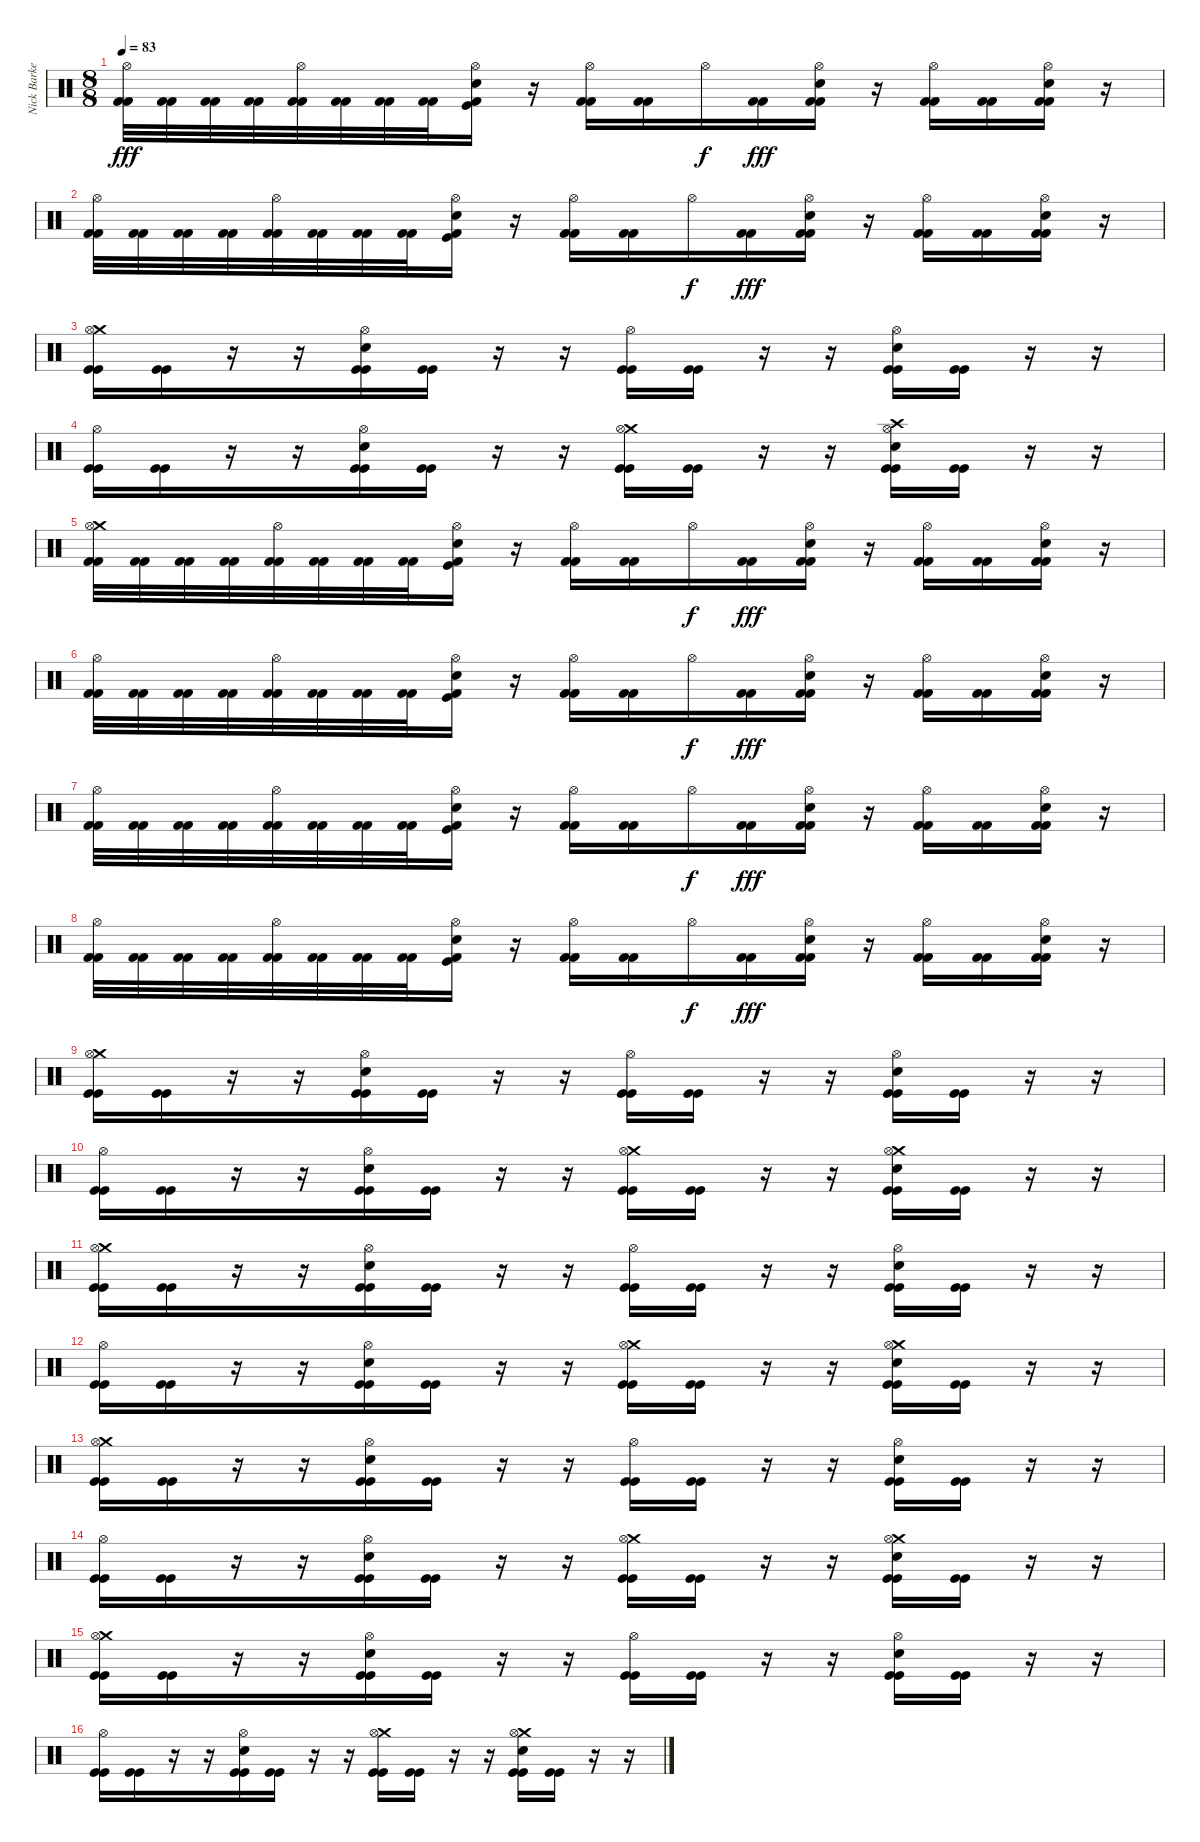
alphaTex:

\track ("Nick Barker" "Nick Barke") {instrument percussion}
\staff {score}
\articulation defaults
\ts (8 8)
\tempo 83
\clef neutral
\ks c
("Kick (hit) 2" "Hi-Hat (open)" "Kick (hit) 2").32{dy fff} ("Kick (hit) 2" "Kick (hit) 2").32 ("Kick (hit) 2" "Kick (hit) 2").32 ("Kick (hit) 2" "Kick (hit) 2").32 ("Kick (hit) 2" "Hi-Hat (open)" "Kick (hit) 2").32 ("Kick (hit) 2" "Kick (hit) 2").32 ("Kick (hit) 2" "Kick (hit) 2").32 ("Kick (hit) 2" "Kick (hit) 2").32 ("Kick (hit) 2" "Hi-Hat (open)" "Snare (hit) 2" "Kick (hit)").16 r.16 ("Kick (hit) 2" "Hi-Hat (open)" "Kick (hit) 2").16 ("Kick (hit) 2" "Kick (hit) 2").16 "Hi-Hat (open)".16{dy f} ("Kick (hit) 2" "Kick (hit) 2").16{dy fff} ("Kick (hit) 2" "Snare (hit) 2" "Hi-Hat (open)" "Kick (hit) 2").16 r.16 ("Kick (hit) 2" "Hi-Hat (open)" "Kick (hit) 2").16 ("Kick (hit) 2" "Kick (hit) 2").16 ("Kick (hit) 2" "Snare (hit) 2" "Hi-Hat (open)" "Kick (hit) 2").16 r.16 |
("Kick (hit) 2" "Hi-Hat (open)" "Kick (hit) 2").32 ("Kick (hit) 2" "Kick (hit) 2").32 ("Kick (hit) 2" "Kick (hit) 2").32 ("Kick (hit) 2" "Kick (hit) 2").32 ("Kick (hit) 2" "Hi-Hat (open)" "Kick (hit) 2").32 ("Kick (hit) 2" "Kick (hit) 2").32 ("Kick (hit) 2" "Kick (hit) 2").32 ("Kick (hit) 2" "Kick (hit) 2").32 ("Kick (hit) 2" "Hi-Hat (open)" "Snare (hit) 2" "Kick (hit)").16 r.16 ("Kick (hit) 2" "Hi-Hat (open)" "Kick (hit) 2").16 ("Kick (hit) 2" "Kick (hit) 2").16 "Hi-Hat (open)".16{dy f} ("Kick (hit) 2" "Kick (hit) 2").16{dy fff} ("Kick (hit) 2" "Snare (hit) 2" "Hi-Hat (open)" "Kick (hit) 2").16 r.16 ("Kick (hit) 2" "Hi-Hat (open)" "Kick (hit) 2").16 ("Kick (hit) 2" "Kick (hit) 2").16 ("Kick (hit) 2" "Snare (hit) 2" "Hi-Hat (open)" "Kick (hit) 2").16 r.16 |
("Kick (hit)" "Crash medium (hit)" "Hi-Hat (open)" "Kick (hit)").16 ("Kick (hit)" "Kick (hit)").16 r.16 r.16 ("Kick (hit)" "Snare (hit) 2" "Hi-Hat (open)" "Kick (hit)").16 ("Kick (hit)" "Kick (hit)").16 r.16 r.16 ("Kick (hit)" "Hi-Hat (open)" "Kick (hit)").16 ("Kick (hit)" "Kick (hit)").16 r.16 r.16 ("Kick (hit)" "Snare (hit) 2" "Hi-Hat (open)" "Kick (hit)").16 ("Kick (hit)" "Kick (hit)").16 r.16 r.16 |
("Kick (hit)" "Hi-Hat (open)" "Kick (hit)").16 ("Kick (hit)" "Kick (hit)").16 r.16 r.16 ("Kick (hit)" "Snare (hit) 2" "Hi-Hat (open)" "Kick (hit)").16 ("Kick (hit)" "Kick (hit)").16 r.16 r.16 ("Kick (hit)" "Crash medium (hit)" "Hi-Hat (open)" "Kick (hit)").16 ("Kick (hit)" "Kick (hit)").16 r.16 r.16 ("Kick (hit)" "Crash high (hit)" "Snare (hit) 2" "Hi-Hat (open)" "Kick (hit)").16 ("Kick (hit)" "Kick (hit)").16 r.16 r.16 |
("Kick (hit) 2" "Crash medium (hit)" "Hi-Hat (open)" "Kick (hit) 2").32 ("Kick (hit) 2" "Kick (hit) 2").32 ("Kick (hit) 2" "Kick (hit) 2").32 ("Kick (hit) 2" "Kick (hit) 2").32 ("Kick (hit) 2" "Hi-Hat (open)" "Kick (hit) 2").32 ("Kick (hit) 2" "Kick (hit) 2").32 ("Kick (hit) 2" "Kick (hit) 2").32 ("Kick (hit) 2" "Kick (hit) 2").32 ("Kick (hit) 2" "Hi-Hat (open)" "Snare (hit) 2" "Kick (hit)").16 r.16 ("Kick (hit) 2" "Hi-Hat (open)" "Kick (hit) 2").16 ("Kick (hit) 2" "Kick (hit) 2").16 "Hi-Hat (open)".16{dy f} ("Kick (hit) 2" "Kick (hit) 2").16{dy fff} ("Kick (hit) 2" "Snare (hit) 2" "Hi-Hat (open)" "Kick (hit) 2").16 r.16 ("Kick (hit) 2" "Hi-Hat (open)" "Kick (hit) 2").16 ("Kick (hit) 2" "Kick (hit) 2").16 ("Kick (hit) 2" "Snare (hit) 2" "Hi-Hat (open)" "Kick (hit) 2").16 r.16 |
("Kick (hit) 2" "Hi-Hat (open)" "Kick (hit) 2").32 ("Kick (hit) 2" "Kick (hit) 2").32 ("Kick (hit) 2" "Kick (hit) 2").32 ("Kick (hit) 2" "Kick (hit) 2").32 ("Kick (hit) 2" "Hi-Hat (open)" "Kick (hit) 2").32 ("Kick (hit) 2" "Kick (hit) 2").32 ("Kick (hit) 2" "Kick (hit) 2").32 ("Kick (hit) 2" "Kick (hit) 2").32 ("Kick (hit) 2" "Hi-Hat (open)" "Snare (hit) 2" "Kick (hit)").16 r.16 ("Kick (hit) 2" "Hi-Hat (open)" "Kick (hit) 2").16 ("Kick (hit) 2" "Kick (hit) 2").16 "Hi-Hat (open)".16{dy f} ("Kick (hit) 2" "Kick (hit) 2").16{dy fff} ("Kick (hit) 2" "Snare (hit) 2" "Hi-Hat (open)" "Kick (hit) 2").16 r.16 ("Kick (hit) 2" "Hi-Hat (open)" "Kick (hit) 2").16 ("Kick (hit) 2" "Kick (hit) 2").16 ("Kick (hit) 2" "Snare (hit) 2" "Hi-Hat (open)" "Kick (hit) 2").16 r.16 |
("Kick (hit) 2" "Hi-Hat (open)" "Kick (hit) 2").32 ("Kick (hit) 2" "Kick (hit) 2").32 ("Kick (hit) 2" "Kick (hit) 2").32 ("Kick (hit) 2" "Kick (hit) 2").32 ("Kick (hit) 2" "Hi-Hat (open)" "Kick (hit) 2").32 ("Kick (hit) 2" "Kick (hit) 2").32 ("Kick (hit) 2" "Kick (hit) 2").32 ("Kick (hit) 2" "Kick (hit) 2").32 ("Kick (hit) 2" "Hi-Hat (open)" "Snare (hit) 2" "Kick (hit)").16 r.16 ("Kick (hit) 2" "Hi-Hat (open)" "Kick (hit) 2").16 ("Kick (hit) 2" "Kick (hit) 2").16 "Hi-Hat (open)".16{dy f} ("Kick (hit) 2" "Kick (hit) 2").16{dy fff} ("Kick (hit) 2" "Snare (hit) 2" "Hi-Hat (open)" "Kick (hit) 2").16 r.16 ("Kick (hit) 2" "Hi-Hat (open)" "Kick (hit) 2").16 ("Kick (hit) 2" "Kick (hit) 2").16 ("Kick (hit) 2" "Snare (hit) 2" "Hi-Hat (open)" "Kick (hit) 2").16 r.16 |
("Kick (hit) 2" "Hi-Hat (open)" "Kick (hit) 2").32 ("Kick (hit) 2" "Kick (hit) 2").32 ("Kick (hit) 2" "Kick (hit) 2").32 ("Kick (hit) 2" "Kick (hit) 2").32 ("Kick (hit) 2" "Hi-Hat (open)" "Kick (hit) 2").32 ("Kick (hit) 2" "Kick (hit) 2").32 ("Kick (hit) 2" "Kick (hit) 2").32 ("Kick (hit) 2" "Kick (hit) 2").32 ("Kick (hit) 2" "Hi-Hat (open)" "Snare (hit) 2" "Kick (hit)").16 r.16 ("Kick (hit) 2" "Hi-Hat (open)" "Kick (hit) 2").16 ("Kick (hit) 2" "Kick (hit) 2").16 "Hi-Hat (open)".16{dy f} ("Kick (hit) 2" "Kick (hit) 2").16{dy fff} ("Kick (hit) 2" "Snare (hit) 2" "Hi-Hat (open)" "Kick (hit) 2").16 r.16 ("Kick (hit) 2" "Hi-Hat (open)" "Kick (hit) 2").16 ("Kick (hit) 2" "Kick (hit) 2").16 ("Kick (hit) 2" "Snare (hit) 2" "Hi-Hat (open)" "Kick (hit) 2").16 r.16 |
("Kick (hit)" "Crash medium (hit)" "Hi-Hat (open)" "Kick (hit)").16 ("Kick (hit)" "Kick (hit)").16 r.16 r.16 ("Kick (hit)" "Snare (hit) 2" "Hi-Hat (open)" "Kick (hit)").16 ("Kick (hit)" "Kick (hit)").16 r.16 r.16 ("Kick (hit)" "Hi-Hat (open)" "Kick (hit)").16 ("Kick (hit)" "Kick (hit)").16 r.16 r.16 ("Kick (hit)" "Snare (hit) 2" "Hi-Hat (open)" "Kick (hit)").16 ("Kick (hit)" "Kick (hit)").16 r.16 r.16 |
("Kick (hit)" "Hi-Hat (open)" "Kick (hit)").16 ("Kick (hit)" "Kick (hit)").16 r.16 r.16 ("Kick (hit)" "Snare (hit) 2" "Hi-Hat (open)" "Kick (hit)").16 ("Kick (hit)" "Kick (hit)").16 r.16 r.16 ("Kick (hit)" "Crash medium (hit)" "Hi-Hat (open)" "Kick (hit)").16 ("Kick (hit)" "Kick (hit)").16 r.16 r.16 ("Kick (hit)" "Crash medium (hit)" "Snare (hit) 2" "Hi-Hat (open)" "Kick (hit)").16 ("Kick (hit)" "Kick (hit)").16 r.16 r.16 |
("Kick (hit)" "Crash medium (hit)" "Hi-Hat (open)" "Kick (hit)").16 ("Kick (hit)" "Kick (hit)").16 r.16 r.16 ("Kick (hit)" "Snare (hit) 2" "Hi-Hat (open)" "Kick (hit)").16 ("Kick (hit)" "Kick (hit)").16 r.16 r.16 ("Kick (hit)" "Hi-Hat (open)" "Kick (hit)").16 ("Kick (hit)" "Kick (hit)").16 r.16 r.16 ("Kick (hit)" "Snare (hit) 2" "Hi-Hat (open)" "Kick (hit)").16 ("Kick (hit)" "Kick (hit)").16 r.16 r.16 |
("Kick (hit)" "Hi-Hat (open)" "Kick (hit)").16 ("Kick (hit)" "Kick (hit)").16 r.16 r.16 ("Kick (hit)" "Snare (hit) 2" "Hi-Hat (open)" "Kick (hit)").16 ("Kick (hit)" "Kick (hit)").16 r.16 r.16 ("Kick (hit)" "Crash medium (hit)" "Hi-Hat (open)" "Kick (hit)").16 ("Kick (hit)" "Kick (hit)").16 r.16 r.16 ("Kick (hit)" "Crash medium (hit)" "Snare (hit) 2" "Hi-Hat (open)" "Kick (hit)").16 ("Kick (hit)" "Kick (hit)").16 r.16 r.16 |
("Kick (hit)" "Crash medium (hit)" "Hi-Hat (open)" "Kick (hit)").16 ("Kick (hit)" "Kick (hit)").16 r.16 r.16 ("Kick (hit)" "Snare (hit) 2" "Hi-Hat (open)" "Kick (hit)").16 ("Kick (hit)" "Kick (hit)").16 r.16 r.16 ("Kick (hit)" "Hi-Hat (open)" "Kick (hit)").16 ("Kick (hit)" "Kick (hit)").16 r.16 r.16 ("Kick (hit)" "Snare (hit) 2" "Hi-Hat (open)" "Kick (hit)").16 ("Kick (hit)" "Kick (hit)").16 r.16 r.16 |
("Kick (hit)" "Hi-Hat (open)" "Kick (hit)").16 ("Kick (hit)" "Kick (hit)").16 r.16 r.16 ("Kick (hit)" "Snare (hit) 2" "Hi-Hat (open)" "Kick (hit)").16 ("Kick (hit)" "Kick (hit)").16 r.16 r.16 ("Kick (hit)" "Crash medium (hit)" "Hi-Hat (open)" "Kick (hit)").16 ("Kick (hit)" "Kick (hit)").16 r.16 r.16 ("Kick (hit)" "Crash medium (hit)" "Snare (hit) 2" "Hi-Hat (open)" "Kick (hit)").16 ("Kick (hit)" "Kick (hit)").16 r.16 r.16 |
("Kick (hit)" "Crash medium (hit)" "Hi-Hat (open)" "Kick (hit)").16 ("Kick (hit)" "Kick (hit)").16 r.16 r.16 ("Kick (hit)" "Snare (hit) 2" "Hi-Hat (open)" "Kick (hit)").16 ("Kick (hit)" "Kick (hit)").16 r.16 r.16 ("Kick (hit)" "Hi-Hat (open)" "Kick (hit)").16 ("Kick (hit)" "Kick (hit)").16 r.16 r.16 ("Kick (hit)" "Snare (hit) 2" "Hi-Hat (open)" "Kick (hit)").16 ("Kick (hit)" "Kick (hit)").16 r.16 r.16 |
("Kick (hit)" "Hi-Hat (open)" "Kick (hit)").16 ("Kick (hit)" "Kick (hit)").16 r.16 r.16 ("Kick (hit)" "Snare (hit) 2" "Hi-Hat (open)" "Kick (hit)").16 ("Kick (hit)" "Kick (hit)").16 r.16 r.16 ("Kick (hit)" "Crash medium (hit)" "Hi-Hat (open)" "Kick (hit)").16 ("Kick (hit)" "Kick (hit)").16 r.16 r.16 ("Kick (hit)" "Crash medium (hit)" "Snare (hit) 2" "Hi-Hat (open)" "Kick (hit)").16 ("Kick (hit)" "Kick (hit)").16 r.16 r.16
